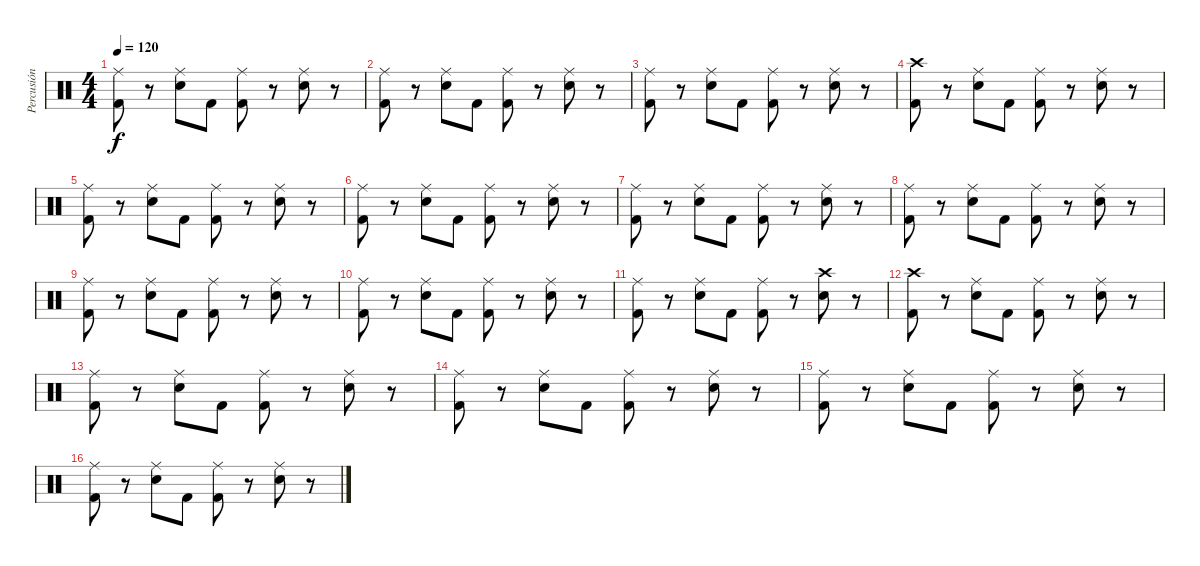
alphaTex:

\track ("Percusión" "Percusión") {instrument percussion}
\staff {score}
\articulation defaults
\ts (4 4)
\tempo 120
\clef neutral
\ks c
("Ride (middle)" "Kick (hit) 2").8{dy f} r.8 ("Ride (middle)" "Snare (hit) 2").8 "Kick (hit) 2".8 ("Ride (middle)" "Kick (hit) 2").8 r.8 ("Ride (middle)" "Snare (hit) 2").8 r.8 |
("Ride (middle)" "Kick (hit) 2").8 r.8 ("Ride (middle)" "Snare (hit) 2").8 "Kick (hit) 2".8 ("Ride (middle)" "Kick (hit) 2").8 r.8 ("Ride (middle)" "Snare (hit) 2").8 r.8 |
("Ride (middle)" "Kick (hit) 2").8 r.8 ("Ride (middle)" "Snare (hit) 2").8 "Kick (hit) 2".8 ("Ride (middle)" "Kick (hit) 2").8 r.8 ("Ride (middle)" "Snare (hit) 2").8 r.8 |
("Crash high (hit)" "Kick (hit) 2").8 r.8 ("Ride (middle)" "Snare (hit) 2").8 "Kick (hit) 2".8 ("Ride (middle)" "Kick (hit) 2").8 r.8 ("Ride (middle)" "Snare (hit) 2").8 r.8 |
("Ride (middle)" "Kick (hit) 2").8 r.8 ("Ride (middle)" "Snare (hit) 2").8 "Kick (hit) 2".8 ("Ride (middle)" "Kick (hit) 2").8 r.8 ("Ride (middle)" "Snare (hit) 2").8 r.8 |
("Ride (middle)" "Kick (hit) 2").8 r.8 ("Ride (middle)" "Snare (hit) 2").8 "Kick (hit) 2".8 ("Ride (middle)" "Kick (hit) 2").8 r.8 ("Ride (middle)" "Snare (hit) 2").8 r.8 |
("Ride (middle)" "Kick (hit) 2").8 r.8 ("Ride (middle)" "Snare (hit) 2").8 "Kick (hit) 2".8 ("Ride (middle)" "Kick (hit) 2").8 r.8 ("Ride (middle)" "Snare (hit) 2").8 r.8 |
("Ride (middle)" "Kick (hit) 2").8 r.8 ("Ride (middle)" "Snare (hit) 2").8 "Kick (hit) 2".8 ("Ride (middle)" "Kick (hit) 2").8 r.8 ("Ride (middle)" "Snare (hit) 2").8 r.8 |
("Ride (middle)" "Kick (hit) 2").8 r.8 ("Ride (middle)" "Snare (hit) 2").8 "Kick (hit) 2".8 ("Ride (middle)" "Kick (hit) 2").8 r.8 ("Ride (middle)" "Snare (hit) 2").8 r.8 |
("Ride (middle)" "Kick (hit) 2").8 r.8 ("Ride (middle)" "Snare (hit) 2").8 "Kick (hit) 2".8 ("Ride (middle)" "Kick (hit) 2").8 r.8 ("Ride (middle)" "Snare (hit) 2").8 r.8 |
("Ride (middle)" "Kick (hit) 2").8 r.8 ("Ride (middle)" "Snare (hit) 2").8 "Kick (hit) 2".8 ("Ride (middle)" "Kick (hit) 2").8 r.8 ("Crash high (hit)" "Snare (hit) 2").8 r.8 |
("Crash high (hit)" "Kick (hit) 2").8 r.8 ("Ride (middle)" "Snare (hit) 2").8 "Kick (hit) 2".8 ("Ride (middle)" "Kick (hit) 2").8 r.8 ("Ride (middle)" "Snare (hit) 2").8 r.8 |
("Ride (middle)" "Kick (hit) 2").8 r.8 ("Ride (middle)" "Snare (hit) 2").8 "Kick (hit) 2".8 ("Ride (middle)" "Kick (hit) 2").8 r.8 ("Ride (middle)" "Snare (hit) 2").8 r.8 |
("Ride (middle)" "Kick (hit) 2").8 r.8 ("Ride (middle)" "Snare (hit) 2").8 "Kick (hit) 2".8 ("Ride (middle)" "Kick (hit) 2").8 r.8 ("Ride (middle)" "Snare (hit) 2").8 r.8 |
("Ride (middle)" "Kick (hit) 2").8 r.8 ("Ride (middle)" "Snare (hit) 2").8 "Kick (hit) 2".8 ("Ride (middle)" "Kick (hit) 2").8 r.8 ("Ride (middle)" "Snare (hit) 2").8 r.8 |
("Ride (middle)" "Kick (hit) 2").8 r.8 ("Ride (middle)" "Snare (hit) 2").8 "Kick (hit) 2".8 ("Ride (middle)" "Kick (hit) 2").8 r.8 ("Ride (middle)" "Snare (hit) 2").8 r.8
